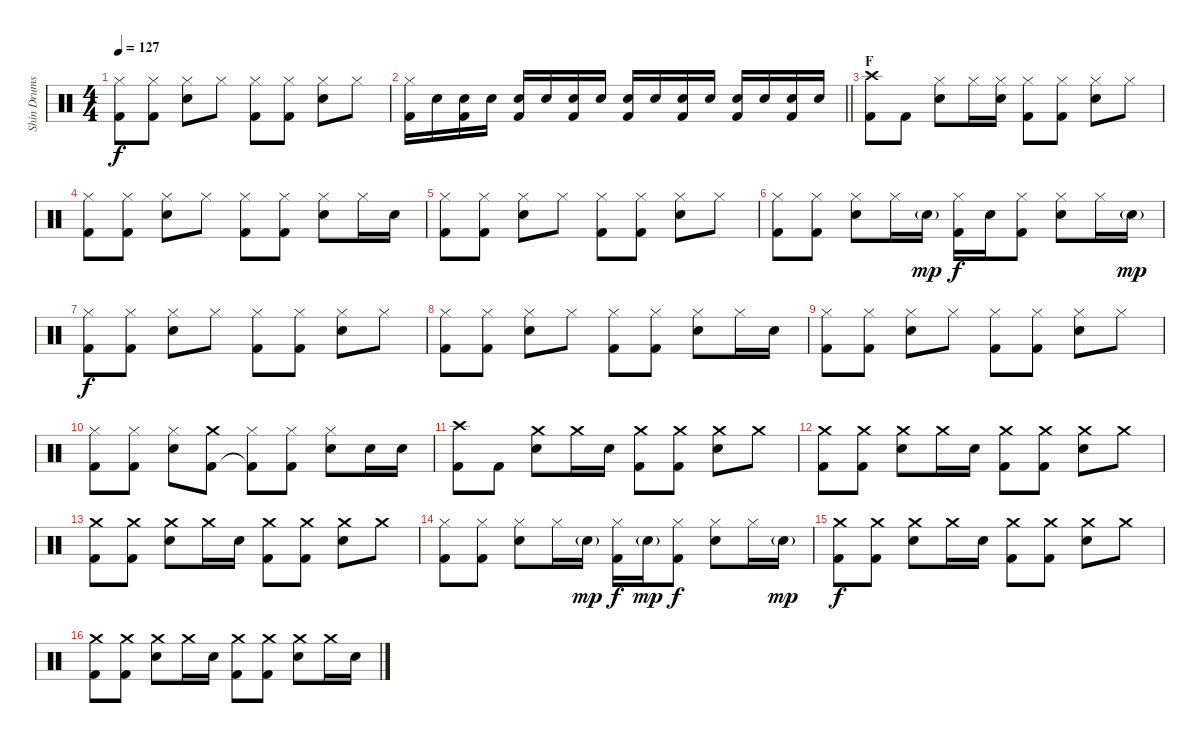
\track ("Shin Drums" "Shin Drums") {instrument percussion}
\staff {score}
\articulation defaults
\ts (4 4)
\tempo 127
\clef neutral
\ks c
("Hi-Hat (closed)" "Kick (hit) 2").8{dy f} ("Hi-Hat (closed)" "Kick (hit) 2").8 ("Hi-Hat (closed)" "Snare (hit) 2").8 "Hi-Hat (closed)".8 ("Hi-Hat (closed)" "Kick (hit) 2").8 ("Hi-Hat (closed)" "Kick (hit) 2").8 ("Hi-Hat (closed)" "Snare (hit) 2").8 "Hi-Hat (closed)".8 |
\barLineRight lightlight
("Hi-Hat (closed)" "Kick (hit) 2").16 "Snare (hit) 2".16 ("Snare (hit) 2" "Kick (hit) 2").16 "Snare (hit) 2".16 ("Snare (hit) 2" "Kick (hit) 2").16 "Snare (hit) 2".16 ("Snare (hit) 2" "Kick (hit) 2").16 "Snare (hit) 2".16 ("Snare (hit) 2" "Kick (hit) 2").16 "Snare (hit) 2".16 ("Snare (hit) 2" "Kick (hit) 2").16 "Snare (hit) 2".16 ("Snare (hit) 2" "Kick (hit) 2").16 "Snare (hit) 2".16 ("Snare (hit) 2" "Kick (hit) 2").16 "Snare (hit) 2".16 |
\section ("" "F")
("Crash high (hit)" "Kick (hit) 2").8 "Kick (hit) 2".8 ("Hi-Hat (closed)" "Snare (hit) 2").8 "Hi-Hat (closed)".16 ("Hi-Hat (closed)" "Snare (hit) 2").16 ("Hi-Hat (closed)" "Kick (hit) 2").8 ("Hi-Hat (closed)" "Kick (hit) 2").8 ("Hi-Hat (closed)" "Snare (hit) 2").8 "Hi-Hat (closed)".8 |
("Hi-Hat (closed)" "Kick (hit) 2").8 ("Hi-Hat (closed)" "Kick (hit) 2").8 ("Hi-Hat (closed)" "Snare (hit) 2").8 "Hi-Hat (closed)".8 ("Hi-Hat (closed)" "Kick (hit) 2").8 ("Hi-Hat (closed)" "Kick (hit) 2").8 ("Hi-Hat (closed)" "Snare (hit) 2").8 "Hi-Hat (closed)".16 "Snare (hit) 2".16 |
("Hi-Hat (closed)" "Kick (hit) 2").8 ("Hi-Hat (closed)" "Kick (hit) 2").8 ("Hi-Hat (closed)" "Snare (hit) 2").8 "Hi-Hat (closed)".8 ("Hi-Hat (closed)" "Kick (hit) 2").8 ("Hi-Hat (closed)" "Kick (hit) 2").8 ("Hi-Hat (closed)" "Snare (hit) 2").8 "Hi-Hat (closed)".8 |
("Hi-Hat (closed)" "Kick (hit) 2").8 ("Hi-Hat (closed)" "Kick (hit) 2").8 ("Hi-Hat (closed)" "Snare (hit) 2").8 "Hi-Hat (closed)".16 "Snare (hit) 2"{g}.16{dy mp} ("Hi-Hat (closed)" "Kick (hit) 2").16{dy f} "Snare (hit) 2".16 ("Hi-Hat (closed)" "Kick (hit) 2").8 ("Hi-Hat (closed)" "Snare (hit) 2").8 "Hi-Hat (closed)".16 "Snare (hit) 2"{g}.16{dy mp} |
("Hi-Hat (closed)" "Kick (hit) 2").8{dy f} ("Hi-Hat (closed)" "Kick (hit) 2").8 ("Hi-Hat (closed)" "Snare (hit) 2").8 "Hi-Hat (closed)".8 ("Hi-Hat (closed)" "Kick (hit) 2").8 ("Hi-Hat (closed)" "Kick (hit) 2").8 ("Hi-Hat (closed)" "Snare (hit) 2").8 "Hi-Hat (closed)".8 |
("Hi-Hat (closed)" "Kick (hit) 2").8 ("Hi-Hat (closed)" "Kick (hit) 2").8 ("Hi-Hat (closed)" "Snare (hit) 2").8 "Hi-Hat (closed)".8 ("Hi-Hat (closed)" "Kick (hit) 2").8 ("Hi-Hat (closed)" "Kick (hit) 2").8 ("Hi-Hat (closed)" "Snare (hit) 2").8 "Hi-Hat (closed)".16 "Snare (hit) 2".16 |
("Hi-Hat (closed)" "Kick (hit) 2").8 ("Hi-Hat (closed)" "Kick (hit) 2").8 ("Hi-Hat (closed)" "Snare (hit) 2").8 "Hi-Hat (closed)".8 ("Hi-Hat (closed)" "Kick (hit) 2").8 ("Hi-Hat (closed)" "Kick (hit) 2").8 ("Hi-Hat (closed)" "Snare (hit) 2").8 "Hi-Hat (closed)".8 |
("Hi-Hat (closed)" "Kick (hit) 2").8 ("Hi-Hat (closed)" "Kick (hit) 2").8 ("Hi-Hat (closed)" "Snare (hit) 2").8 ("Crash medium (hit)" "Kick (hit) 2").8 ("Hi-Hat (closed)" "Kick (hit) 2"{t}).8 ("Hi-Hat (closed)" "Kick (hit) 2").8 ("Hi-Hat (closed)" "Snare (hit) 2").8 "Snare (hit) 2".16 "Snare (hit) 2".16 |
("Crash high (hit)" "Kick (hit) 2").8 "Kick (hit) 2".8 ("Crash medium (hit)" "Snare (hit) 2").8 "Crash medium (hit)".16 "Snare (hit) 2".16 ("Crash medium (hit)" "Kick (hit) 2").8 ("Crash medium (hit)" "Kick (hit) 2").8 ("Crash medium (hit)" "Snare (hit) 2").8 "Crash medium (hit)".8 |
("Crash medium (hit)" "Kick (hit) 2").8 ("Crash medium (hit)" "Kick (hit) 2").8 ("Crash medium (hit)" "Snare (hit) 2").8 "Crash medium (hit)".16 "Snare (hit) 2".16 ("Crash medium (hit)" "Kick (hit) 2").8 ("Crash medium (hit)" "Kick (hit) 2").8 ("Crash medium (hit)" "Snare (hit) 2").8 "Crash medium (hit)".8 |
("Crash medium (hit)" "Kick (hit) 2").8 ("Crash medium (hit)" "Kick (hit) 2").8 ("Crash medium (hit)" "Snare (hit) 2").8 "Crash medium (hit)".16 "Snare (hit) 2".16 ("Crash medium (hit)" "Kick (hit) 2").8 ("Crash medium (hit)" "Kick (hit) 2").8 ("Crash medium (hit)" "Snare (hit) 2").8 "Crash medium (hit)".8 |
("Hi-Hat (closed)" "Kick (hit) 2").8 ("Hi-Hat (closed)" "Kick (hit) 2").8 ("Hi-Hat (closed)" "Snare (hit) 2").8 "Hi-Hat (closed)".16 "Snare (hit) 2"{g}.16{dy mp} ("Hi-Hat (closed)" "Kick (hit) 2").16{dy f} "Snare (hit) 2"{g}.16{dy mp} ("Hi-Hat (closed)" "Kick (hit) 2").8{dy f} ("Hi-Hat (closed)" "Snare (hit) 2").8 "Hi-Hat (closed)".16 "Snare (hit) 2"{g}.16{dy mp} |
("Crash medium (hit)" "Kick (hit) 2").8{dy f} ("Crash medium (hit)" "Kick (hit) 2").8 ("Crash medium (hit)" "Snare (hit) 2").8 "Crash medium (hit)".16 "Snare (hit) 2".16 ("Crash medium (hit)" "Kick (hit) 2").8 ("Crash medium (hit)" "Kick (hit) 2").8 ("Crash medium (hit)" "Snare (hit) 2").8 "Crash medium (hit)".8 |
("Crash medium (hit)" "Kick (hit) 2").8 ("Crash medium (hit)" "Kick (hit) 2").8 ("Crash medium (hit)" "Snare (hit) 2").8 "Crash medium (hit)".16 "Snare (hit) 2".16 ("Crash medium (hit)" "Kick (hit) 2").8 ("Crash medium (hit)" "Kick (hit) 2").8 ("Crash medium (hit)" "Snare (hit) 2").8 "Crash medium (hit)".16 "Snare (hit) 2".16
